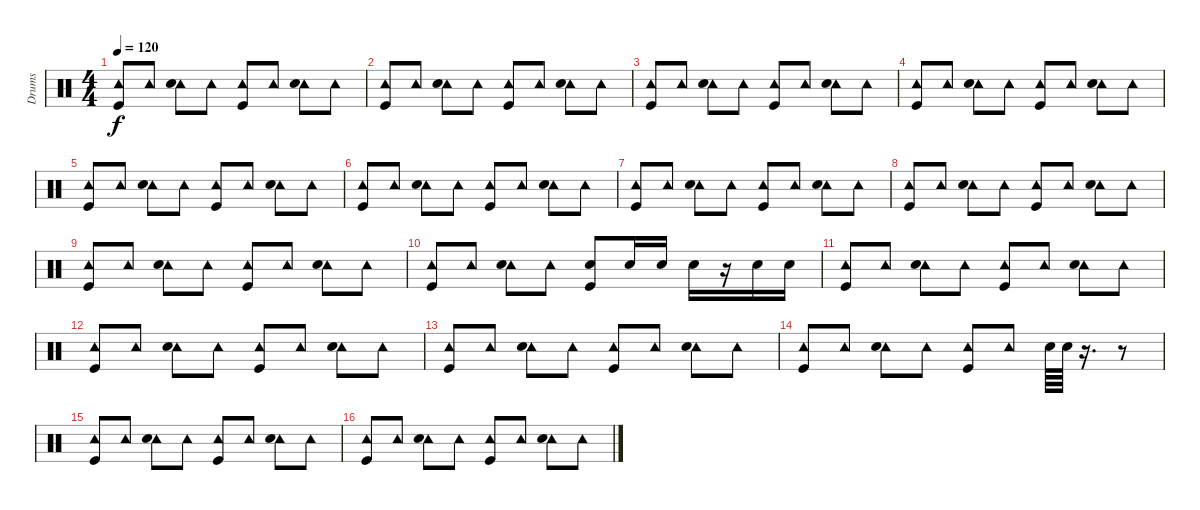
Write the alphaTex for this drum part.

\track ("Drums" "Drums") {instrument percussion}
\staff {score}
\articulation defaults
\ts (4 4)
\tempo 120
\clef neutral
\ks c
("Tambourine (hit)" "Kick (hit)").8{dy f} "Tambourine (hit)".8 ("Tambourine (hit)" "Snare (hit) 2").8 "Tambourine (hit)".8 ("Tambourine (hit)" "Kick (hit)").8 "Tambourine (hit)".8 ("Tambourine (hit)" "Snare (hit) 2").8 "Tambourine (hit)".8 |
("Tambourine (hit)" "Kick (hit)").8 "Tambourine (hit)".8 ("Tambourine (hit)" "Snare (hit) 2").8 "Tambourine (hit)".8 ("Tambourine (hit)" "Kick (hit)").8 "Tambourine (hit)".8 ("Tambourine (hit)" "Snare (hit) 2").8 "Tambourine (hit)".8 |
("Tambourine (hit)" "Kick (hit)").8 "Tambourine (hit)".8 ("Tambourine (hit)" "Snare (hit) 2").8 "Tambourine (hit)".8 ("Tambourine (hit)" "Kick (hit)").8 "Tambourine (hit)".8 ("Tambourine (hit)" "Snare (hit) 2").8 "Tambourine (hit)".8 |
("Tambourine (hit)" "Kick (hit)").8 "Tambourine (hit)".8 ("Tambourine (hit)" "Snare (hit) 2").8 "Tambourine (hit)".8 ("Tambourine (hit)" "Kick (hit)").8 "Tambourine (hit)".8 ("Tambourine (hit)" "Snare (hit) 2").8 "Tambourine (hit)".8 |
("Tambourine (hit)" "Kick (hit)").8 "Tambourine (hit)".8 ("Tambourine (hit)" "Snare (hit) 2").8 "Tambourine (hit)".8 ("Tambourine (hit)" "Kick (hit)").8 "Tambourine (hit)".8 ("Tambourine (hit)" "Snare (hit) 2").8 "Tambourine (hit)".8 |
("Tambourine (hit)" "Kick (hit)").8 "Tambourine (hit)".8 ("Tambourine (hit)" "Snare (hit) 2").8 "Tambourine (hit)".8 ("Tambourine (hit)" "Kick (hit)").8 "Tambourine (hit)".8 ("Tambourine (hit)" "Snare (hit) 2").8 "Tambourine (hit)".8 |
("Tambourine (hit)" "Kick (hit)").8 "Tambourine (hit)".8 ("Tambourine (hit)" "Snare (hit) 2").8 "Tambourine (hit)".8 ("Tambourine (hit)" "Kick (hit)").8 "Tambourine (hit)".8 ("Tambourine (hit)" "Snare (hit) 2").8 "Tambourine (hit)".8 |
("Tambourine (hit)" "Kick (hit)").8 "Tambourine (hit)".8 ("Tambourine (hit)" "Snare (hit) 2").8 "Tambourine (hit)".8 ("Tambourine (hit)" "Kick (hit)").8 "Tambourine (hit)".8 ("Tambourine (hit)" "Snare (hit) 2").8 "Tambourine (hit)".8 |
("Tambourine (hit)" "Kick (hit)").8 "Tambourine (hit)".8 ("Tambourine (hit)" "Snare (hit) 2").8 "Tambourine (hit)".8 ("Tambourine (hit)" "Kick (hit)").8 "Tambourine (hit)".8 ("Tambourine (hit)" "Snare (hit) 2").8 "Tambourine (hit)".8 |
("Tambourine (hit)" "Kick (hit)").8 "Tambourine (hit)".8 ("Tambourine (hit)" "Snare (hit) 2").8 "Tambourine (hit)".8 ("Snare (hit) 2" "Kick (hit)").8 "Snare (hit) 2".16 "Snare (hit) 2".16 "Snare (hit) 2".16 r.16 "Snare (hit) 2".16 "Snare (hit) 2".16 |
("Tambourine (hit)" "Kick (hit)").8 "Tambourine (hit)".8 ("Tambourine (hit)" "Snare (hit) 2").8 "Tambourine (hit)".8 ("Tambourine (hit)" "Kick (hit)").8 "Tambourine (hit)".8 ("Tambourine (hit)" "Snare (hit) 2").8 "Tambourine (hit)".8 |
("Tambourine (hit)" "Kick (hit)").8 "Tambourine (hit)".8 ("Tambourine (hit)" "Snare (hit) 2").8 "Tambourine (hit)".8 ("Tambourine (hit)" "Kick (hit)").8 "Tambourine (hit)".8 ("Tambourine (hit)" "Snare (hit) 2").8 "Tambourine (hit)".8 |
("Tambourine (hit)" "Kick (hit)").8 "Tambourine (hit)".8 ("Tambourine (hit)" "Snare (hit) 2").8 "Tambourine (hit)".8 ("Tambourine (hit)" "Kick (hit)").8 "Tambourine (hit)".8 ("Tambourine (hit)" "Snare (hit) 2").8 "Tambourine (hit)".8 |
("Tambourine (hit)" "Kick (hit)").8 "Tambourine (hit)".8 ("Tambourine (hit)" "Snare (hit) 2").8 "Tambourine (hit)".8 ("Tambourine (hit)" "Kick (hit)").8 "Tambourine (hit)".8 "Snare (hit) 2".64 "Snare (hit) 2".64 r.16{d} r.8 |
("Tambourine (hit)" "Kick (hit)").8 "Tambourine (hit)".8 ("Tambourine (hit)" "Snare (hit) 2").8 "Tambourine (hit)".8 ("Tambourine (hit)" "Kick (hit)").8 "Tambourine (hit)".8 ("Tambourine (hit)" "Snare (hit) 2").8 "Tambourine (hit)".8 |
("Tambourine (hit)" "Kick (hit)").8 "Tambourine (hit)".8 ("Tambourine (hit)" "Snare (hit) 2").8 "Tambourine (hit)".8 ("Tambourine (hit)" "Kick (hit)").8 "Tambourine (hit)".8 ("Tambourine (hit)" "Snare (hit) 2").8 "Tambourine (hit)".8
